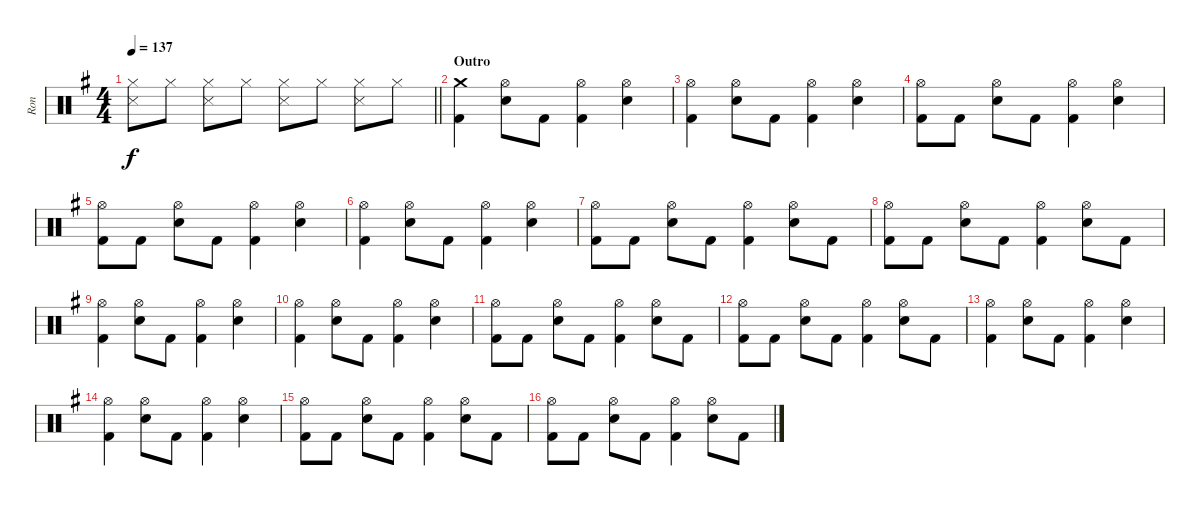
\track ("Ron" "Ron") {instrument percussion}
\staff {score}
\articulation defaults
\ts (4 4)
\tempo 137
\clef neutral
\barLineRight lightlight
\ks eminor
("Hi-Hat (closed)" "Snare (side stick) 3").8{dy f} "Hi-Hat (closed)".8 ("Hi-Hat (closed)" "Snare (side stick) 3").8 "Hi-Hat (closed)".8 ("Hi-Hat (closed)" "Snare (side stick) 3").8 "Hi-Hat (closed)".8 ("Hi-Hat (closed)" "Snare (side stick) 3").8 "Hi-Hat (closed)".8 |
\section ("" "Outro")
("Crash medium (hit)" "Kick (hit) 2").4 ("Hi-Hat (open)" "Electric Snare (hit)").8 "Kick (hit) 2".8 ("Hi-Hat (open)" "Kick (hit) 2").4 ("Hi-Hat (open)" "Electric Snare (hit)").4 |
("Hi-Hat (open)" "Kick (hit) 2").4 ("Hi-Hat (open)" "Electric Snare (hit)").8 "Kick (hit) 2".8 ("Hi-Hat (open)" "Kick (hit) 2").4 ("Hi-Hat (open)" "Electric Snare (hit)").4 |
("Hi-Hat (open)" "Kick (hit) 2").8 "Kick (hit) 2".8 ("Hi-Hat (open)" "Electric Snare (hit)").8 "Kick (hit) 2".8 ("Hi-Hat (open)" "Kick (hit) 2").4 ("Hi-Hat (open)" "Electric Snare (hit)").4 |
("Hi-Hat (open)" "Kick (hit) 2").8 "Kick (hit) 2".8 ("Hi-Hat (open)" "Electric Snare (hit)").8 "Kick (hit) 2".8 ("Hi-Hat (open)" "Kick (hit) 2").4 ("Hi-Hat (open)" "Electric Snare (hit)").4 |
("Hi-Hat (open)" "Kick (hit) 2").4 ("Hi-Hat (open)" "Electric Snare (hit)").8 "Kick (hit) 2".8 ("Hi-Hat (open)" "Kick (hit) 2").4 ("Hi-Hat (open)" "Electric Snare (hit)").4 |
("Hi-Hat (open)" "Kick (hit) 2").8 "Kick (hit) 2".8 ("Hi-Hat (open)" "Electric Snare (hit)").8 "Kick (hit) 2".8 ("Hi-Hat (open)" "Kick (hit) 2").4 ("Hi-Hat (open)" "Electric Snare (hit)").8 "Kick (hit) 2".8 |
("Hi-Hat (open)" "Kick (hit) 2").8 "Kick (hit) 2".8 ("Hi-Hat (open)" "Electric Snare (hit)").8 "Kick (hit) 2".8 ("Hi-Hat (open)" "Kick (hit) 2").4 ("Hi-Hat (open)" "Electric Snare (hit)").8 "Kick (hit) 2".8 |
("Hi-Hat (open)" "Kick (hit) 2").4 ("Hi-Hat (open)" "Electric Snare (hit)").8 "Kick (hit) 2".8 ("Hi-Hat (open)" "Kick (hit) 2").4 ("Hi-Hat (open)" "Electric Snare (hit)").4 |
("Hi-Hat (open)" "Kick (hit) 2").4 ("Hi-Hat (open)" "Electric Snare (hit)").8 "Kick (hit) 2".8 ("Hi-Hat (open)" "Kick (hit) 2").4 ("Hi-Hat (open)" "Electric Snare (hit)").4 |
("Hi-Hat (open)" "Kick (hit) 2").8 "Kick (hit) 2".8 ("Hi-Hat (open)" "Electric Snare (hit)").8 "Kick (hit) 2".8 ("Hi-Hat (open)" "Kick (hit) 2").4 ("Hi-Hat (open)" "Electric Snare (hit)").8 "Kick (hit) 2".8 |
("Hi-Hat (open)" "Kick (hit) 2").8 "Kick (hit) 2".8 ("Hi-Hat (open)" "Electric Snare (hit)").8 "Kick (hit) 2".8 ("Hi-Hat (open)" "Kick (hit) 2").4 ("Hi-Hat (open)" "Electric Snare (hit)").8 "Kick (hit) 2".8 |
("Hi-Hat (open)" "Kick (hit) 2").4 ("Hi-Hat (open)" "Electric Snare (hit)").8 "Kick (hit) 2".8 ("Hi-Hat (open)" "Kick (hit) 2").4 ("Hi-Hat (open)" "Electric Snare (hit)").4 |
("Hi-Hat (open)" "Kick (hit) 2").4 ("Hi-Hat (open)" "Electric Snare (hit)").8 "Kick (hit) 2".8 ("Hi-Hat (open)" "Kick (hit) 2").4 ("Hi-Hat (open)" "Electric Snare (hit)").4 |
("Hi-Hat (open)" "Kick (hit) 2").8 "Kick (hit) 2".8 ("Hi-Hat (open)" "Electric Snare (hit)").8 "Kick (hit) 2".8 ("Hi-Hat (open)" "Kick (hit) 2").4 ("Hi-Hat (open)" "Electric Snare (hit)").8 "Kick (hit) 2".8 |
("Hi-Hat (open)" "Kick (hit) 2").8 "Kick (hit) 2".8 ("Hi-Hat (open)" "Electric Snare (hit)").8 "Kick (hit) 2".8 ("Hi-Hat (open)" "Kick (hit) 2").4 ("Hi-Hat (open)" "Electric Snare (hit)").8 "Kick (hit) 2".8
